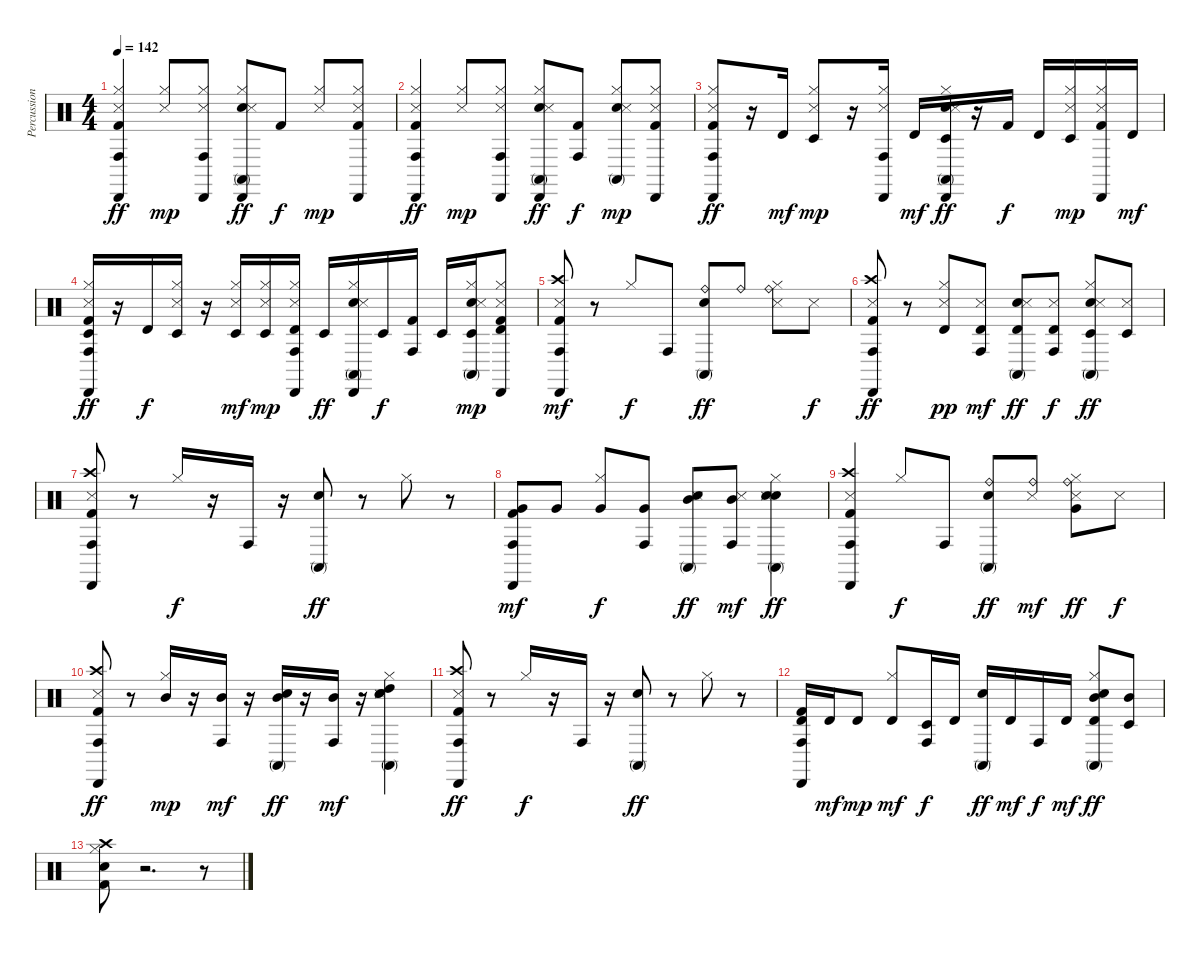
\track ("Percussion" "Percussion") {instrument percussion}
\staff {score}
\articulation defaults
\ts (4 4)
\tempo 142
\clef neutral
\ks c
("Conga high (hit)" "Cabasa (hit)" "Hi-Hat (closed)" "Snare (side stick) 3" "Kick (hit) 2").4{dy ff} ("Hi-Hat (closed)" "Snare (side stick) 3").8{dy mp} ("Conga high (hit)" "Cabasa (hit)" "Hi-Hat (closed)" "Snare (side stick) 3").8 ("Conga high (mute)" "Cabasa (hit)" "Hi-Hat (closed)" "Hand Clap (hit)" "Snare (side stick) 3").8{dy ff} "Kick (hit) 2".8{dy f} ("Hi-Hat (closed)" "Snare (side stick) 3").8{dy mp} ("Cabasa (hit)" "Hi-Hat (closed)" "Snare (side stick) 3" "Kick (hit) 2").8 |
("Conga high (hit)" "Cabasa (hit)" "Hi-Hat (closed)" "Snare (side stick) 3" "Kick (hit) 2").4{dy ff} ("Hi-Hat (closed)" "Snare (side stick) 3").8{dy mp} ("Conga high (hit)" "Cabasa (hit)" "Hi-Hat (closed)" "Snare (side stick) 3").8 ("Conga high (mute)" "Cabasa (hit)" "Hi-Hat (closed)" "Hand Clap (hit)" "Snare (side stick) 3").8{dy ff} ("Conga high (hit)" "Kick (hit) 2").8{dy f} ("Conga high (mute)" "Hi-Hat (closed)" "Hand Clap (hit)" "Snare (side stick) 3").8{dy mp} ("Cabasa (hit)" "Hi-Hat (closed)" "Snare (side stick) 3" "Kick (hit) 2").8 |
("Conga high (hit)" "Cabasa (hit)" "Hi-Hat (closed)" "Snare (side stick) 3" "Kick (hit) 2").8{dy ff} r.16 "Timbale high (hit)".16{dy mf} ("Timbale low (hit)" "Hi-Hat (closed)" "Snare (side stick) 3").8{dy mp} r.16 ("Conga high (hit)" "Cabasa (hit)" "Hi-Hat (closed)" "Snare (side stick) 3").16 "Timbale high (hit)".16{dy mf} ("Timbale low (hit)" "Conga high (mute)" "Cabasa (hit)" "Hi-Hat (closed)" "Hand Clap (hit)" "Snare (side stick) 3").16{dy ff} r.16 "Kick (hit) 2".16{dy f} "Timbale high (hit)".16 ("Timbale low (hit)" "Hi-Hat (closed)" "Snare (side stick) 3").16{dy mp} ("Cabasa (hit)" "Hi-Hat (closed)" "Snare (side stick) 3" "Kick (hit) 2").16 "Timbale high (hit)".16{dy mf} |
("Timbale low (hit)" "Conga high (hit)" "Cabasa (hit)" "Hi-Hat (closed)" "Snare (side stick) 3" "Kick (hit) 2").16{dy ff} r.16 "Timbale high (hit)".16{dy f} ("Timbale low (hit)" "Hi-Hat (closed)" "Snare (side stick) 3").16 r.16 ("Timbale low (hit)" "Hi-Hat (closed)" "Snare (side stick) 3").16{dy mf} ("Timbale low (hit)" "Hi-Hat (closed)" "Snare (side stick) 3").16{dy mp} ("Timbale high (hit)" "Conga high (hit)" "Cabasa (hit)" "Hi-Hat (closed)" "Snare (side stick) 3").16 "Timbale low (hit)".16{dy ff} ("Conga high (mute)" "Cabasa (hit)" "Hi-Hat (closed)" "Hand Clap (hit)" "Snare (side stick) 3").16 "Timbale low (hit)".16{dy f} ("Conga high (hit)" "Kick (hit) 2").16 "Timbale low (hit)".16 ("Timbale low (hit)" "Conga high (mute)" "Hi-Hat (closed)" "Hand Clap (hit)" "Snare (side stick) 3").16{dy mp} ("Timbale high (hit)" "Cabasa (hit)" "Hi-Hat (closed)" "Snare (side stick) 3" "Kick (hit) 2").8 |
("Conga high (hit)" "Cabasa (hit)" "Crash high (hit)" "Snare (side stick) 3" "Kick (hit) 2").8{dy mf} r.8 "Hi-Hat (closed)".8{dy f} "Conga high (hit)".8 ("Conga high (mute)" "Ride (bell)" "Hand Clap (hit)").8{dy ff} "Ride (bell)".8 ("Ride (bell)" "Hi-Hat (closed)" "Snare (side stick) 3").8 "Snare (side stick) 3".8{dy f} |
("Conga high (hit)" "Cabasa (hit)" "Crash high (hit)" "Snare (side stick) 3" "Kick (hit) 2").8{dy ff} r.8 ("Timbale high (hit)" "Hi-Hat (closed)" "Snare (side stick) 3").8{dy pp} ("Timbale high (hit)" "Conga high (hit)" "Snare (side stick) 3").8{dy mf} ("Timbale high (hit)" "Conga high (mute)" "Hand Clap (hit)" "Snare (side stick) 3").8{dy ff} ("Timbale high (hit)" "Conga high (hit)" "Snare (side stick) 3").8{dy f} ("Timbale low (hit)" "Conga high (mute)" "Hi-Hat (closed)" "Hand Clap (hit)" "Snare (side stick) 3").8{dy ff} ("Timbale low (hit)" "Snare (side stick) 3").8 |
("Conga high (hit)" "Cabasa (hit)" "Crash high (hit)" "Snare (side stick) 3" "Kick (hit) 2").8 r.8 "Hi-Hat (closed)".16{dy f} r.16 "Conga high (hit)".16 r.16 ("Conga high (mute)" "Hand Clap (hit)").8{dy ff} r.8 "Hi-Hat (closed)".8 r.8 |
("Conga high (hit)" "Cabasa (hit)" "Very Low Tom (hit)" "Kick (hit) 2").8{dy mf} "Very Low Tom (hit)".8 ("Very Low Tom (hit)" "Hi-Hat (closed)").8{dy f} ("Conga high (hit)" "Very Low Tom (hit)").8 ("Conga high (mute)" "Mid Tom (hit)" "Hand Clap (hit)" "Snare (side stick) 3").8{dy ff} ("Conga high (hit)" "Mid Tom (hit)" "Snare (side stick) 3").8{dy mf} ("Conga high (mute)" "Hi-Hat (closed)" "Hand Clap (hit)" "Snare (hit) 2" "Snare (side stick) 3").4{dy ff} |
("Conga high (hit)" "Cabasa (hit)" "Crash high (hit)" "Snare (side stick) 3" "Kick (hit) 2").4 "Hi-Hat (closed)".8{dy f} "Conga high (hit)".8 ("Conga high (mute)" "Ride (bell)" "Hand Clap (hit)").8{dy ff} ("Ride (bell)" "Snare (side stick) 3").8{dy mf} ("Very Low Tom (hit)" "Ride (bell)" "Hi-Hat (closed)" "Snare (side stick) 3").8{dy ff} "Snare (side stick) 3".8{dy f} |
("Conga high (hit)" "Cabasa (hit)" "Crash high (hit)" "Snare (side stick) 3" "Kick (hit) 2").8{dy ff} r.8 ("Mid Tom (hit)" "Hi-Hat (closed)").16{dy mp} r.16 ("Conga high (hit)" "Mid Tom (hit)").16{dy mf} r.16 ("Conga high (mute)" "Mid Tom (hit)" "Hand Clap (hit)").16{dy ff} r.16 ("Conga high (hit)" "Mid Tom (hit)").16{dy mf} r.16 ("Conga high (mute)" "High Tom (hit)" "Hi-Hat (closed)" "Hand Clap (hit)" "Snare (hit) 2" "Snare (side stick) 3").4 |
("Conga high (hit)" "Cabasa (hit)" "Crash high (hit)" "Snare (side stick) 3" "Kick (hit) 2").8{dy ff} r.8 "Hi-Hat (closed)".16{dy f} r.16 "Conga high (hit)".16 r.16 ("Conga high (mute)" "Hand Clap (hit)").8{dy ff} r.8 "Hi-Hat (closed)".8 r.8 |
("Timbale high (hit)" "Conga high (hit)" "Cabasa (hit)" "Kick (hit) 2").16 "Timbale high (hit)".16{dy mf} "Timbale high (hit)".8{dy mp} ("Timbale high (hit)" "Hi-Hat (closed)").8{dy mf} ("Timbale low (hit)" "Conga high (hit)").16{dy f} "Timbale high (hit)".16 ("Conga high (mute)" "Hand Clap (hit)").16{dy ff} "Timbale high (hit)".16{dy mf} "Conga high (hit)".16{dy f} "Timbale high (hit)".16{dy mf} ("Timbale high (hit)" "Conga high (mute)" "Mid Tom (hit)" "Hi-Hat (closed)" "Hand Clap (hit)").8{dy ff} ("Timbale low (hit)" "Mid Tom (hit)").8 |
("Crash high (hit)" "Hi-Hat (closed)" "Hand Clap (hit)" "Kick (hit) 2").8 r.2{d} r.8
